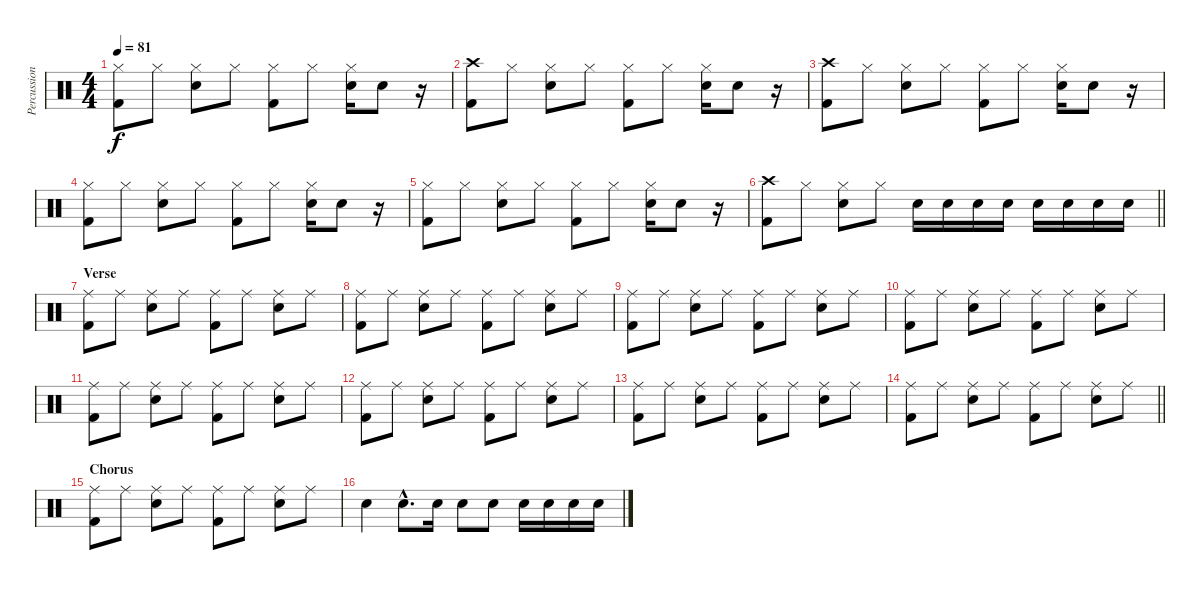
\track ("Percussion" "Percussion") {instrument percussion}
\staff {score}
\articulation defaults
\ts (4 4)
\tempo 81
\clef neutral
\ks c
("Hi-Hat (closed)" "Kick (hit) 2").8{dy f} "Hi-Hat (closed)".8 ("Hi-Hat (closed)" "Snare (hit) 2").8 "Hi-Hat (closed)".8 ("Hi-Hat (closed)" "Kick (hit) 2").8 "Hi-Hat (closed)".8 ("Hi-Hat (closed)" "Snare (hit) 2").16 "Snare (hit) 2".8 r.16 |
("Crash high (hit)" "Kick (hit) 2").8 "Hi-Hat (closed)".8 ("Hi-Hat (closed)" "Snare (hit) 2").8 "Hi-Hat (closed)".8 ("Hi-Hat (closed)" "Kick (hit) 2").8 "Hi-Hat (closed)".8 ("Hi-Hat (closed)" "Snare (hit) 2").16 "Snare (hit) 2".8 r.16 |
("Crash high (hit)" "Kick (hit) 2").8 "Hi-Hat (closed)".8 ("Hi-Hat (closed)" "Snare (hit) 2").8 "Hi-Hat (closed)".8 ("Hi-Hat (closed)" "Kick (hit) 2").8 "Hi-Hat (closed)".8 ("Hi-Hat (closed)" "Snare (hit) 2").16 "Snare (hit) 2".8 r.16 |
("Hi-Hat (closed)" "Kick (hit) 2").8 "Hi-Hat (closed)".8 ("Hi-Hat (closed)" "Snare (hit) 2").8 "Hi-Hat (closed)".8 ("Hi-Hat (closed)" "Kick (hit) 2").8 "Hi-Hat (closed)".8 ("Hi-Hat (closed)" "Snare (hit) 2").16 "Snare (hit) 2".8 r.16 |
("Hi-Hat (closed)" "Kick (hit) 2").8 "Hi-Hat (closed)".8 ("Hi-Hat (closed)" "Snare (hit) 2").8 "Hi-Hat (closed)".8 ("Hi-Hat (closed)" "Kick (hit) 2").8 "Hi-Hat (closed)".8 ("Hi-Hat (closed)" "Snare (hit) 2").16 "Snare (hit) 2".8 r.16 |
\barLineRight lightlight
("Crash high (hit)" "Kick (hit) 2").8 "Hi-Hat (closed)".8 ("Hi-Hat (closed)" "Snare (hit) 2").8 "Hi-Hat (closed)".8 "Snare (hit) 2".16 "Snare (hit) 2".16 "Snare (hit) 2".16 "Snare (hit) 2".16 "Snare (hit) 2".16 "Snare (hit) 2".16 "Snare (hit) 2".16 "Snare (hit) 2".16 |
\section ("" "Verse")
("Ride (middle)" "Kick (hit) 2").8 "Ride (middle)".8 ("Ride (middle)" "Snare (hit) 2").8 "Ride (middle)".8 ("Ride (middle)" "Kick (hit) 2").8 "Ride (middle)".8 ("Ride (middle)" "Snare (hit) 2").8 "Ride (middle)".8 |
("Ride (middle)" "Kick (hit) 2").8 "Ride (middle)".8 ("Ride (middle)" "Snare (hit) 2").8 "Ride (middle)".8 ("Ride (middle)" "Kick (hit) 2").8 "Ride (middle)".8 ("Ride (middle)" "Snare (hit) 2").8 "Ride (middle)".8 |
("Ride (middle)" "Kick (hit) 2").8 "Ride (middle)".8 ("Ride (middle)" "Snare (hit) 2").8 "Ride (middle)".8 ("Ride (middle)" "Kick (hit) 2").8 "Ride (middle)".8 ("Ride (middle)" "Snare (hit) 2").8 "Ride (middle)".8 |
("Ride (middle)" "Kick (hit) 2").8 "Ride (middle)".8 ("Ride (middle)" "Snare (hit) 2").8 "Ride (middle)".8 ("Ride (middle)" "Kick (hit) 2").8 "Ride (middle)".8 ("Ride (middle)" "Snare (hit) 2").8 "Ride (middle)".8 |
("Ride (middle)" "Kick (hit) 2").8 "Ride (middle)".8 ("Ride (middle)" "Snare (hit) 2").8 "Ride (middle)".8 ("Ride (middle)" "Kick (hit) 2").8 "Ride (middle)".8 ("Ride (middle)" "Snare (hit) 2").8 "Ride (middle)".8 |
("Ride (middle)" "Kick (hit) 2").8 "Ride (middle)".8 ("Ride (middle)" "Snare (hit) 2").8 "Ride (middle)".8 ("Ride (middle)" "Kick (hit) 2").8 "Ride (middle)".8 ("Ride (middle)" "Snare (hit) 2").8 "Ride (middle)".8 |
("Ride (middle)" "Kick (hit) 2").8 "Ride (middle)".8 ("Ride (middle)" "Snare (hit) 2").8 "Ride (middle)".8 ("Ride (middle)" "Kick (hit) 2").8 "Ride (middle)".8 ("Ride (middle)" "Snare (hit) 2").8 "Ride (middle)".8 |
\barLineRight lightlight
("Ride (middle)" "Kick (hit) 2").8 "Ride (middle)".8 ("Ride (middle)" "Snare (hit) 2").8 "Ride (middle)".8 ("Ride (middle)" "Kick (hit) 2").8 "Ride (middle)".8 ("Ride (middle)" "Snare (hit) 2").8 "Ride (middle)".8 |
\section ("" "Chorus")
("Ride (middle)" "Kick (hit) 2").8 "Ride (middle)".8 ("Ride (middle)" "Snare (hit) 2").8 "Ride (middle)".8 ("Ride (middle)" "Kick (hit) 2").8 "Ride (middle)".8 ("Ride (middle)" "Snare (hit) 2").8 "Ride (middle)".8 |
"Snare (hit) 2".4 "Snare (hit) 2"{hac}.8{d} "Snare (hit) 2".16 "Snare (hit) 2".8 "Snare (hit) 2".8 "Snare (hit) 2".16 "Snare (hit) 2".16 "Snare (hit) 2".16 "Snare (hit) 2".16
